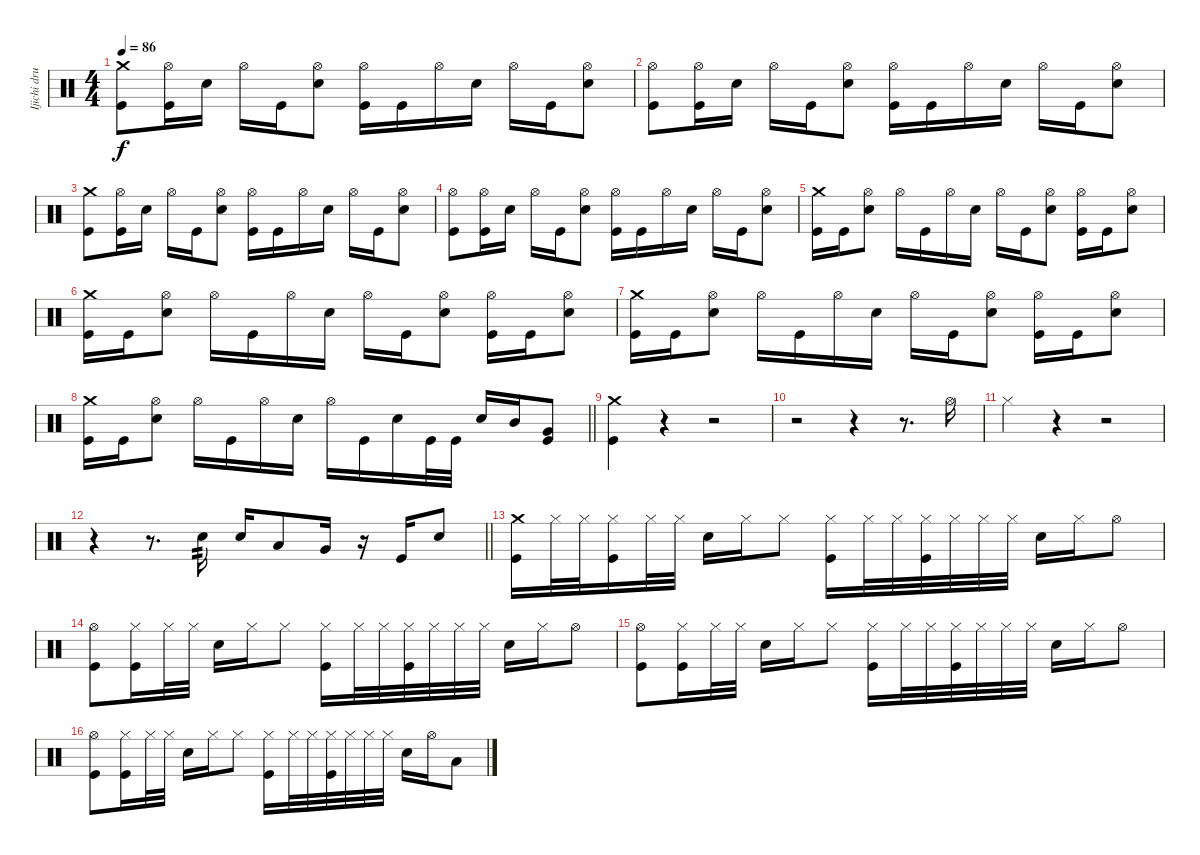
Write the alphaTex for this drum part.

\track ("Ijichi drums" "Ijichi dru") {instrument percussion}
\staff {score}
\articulation defaults
\ts (4 4)
\tempo 86
\clef neutral
\ks c
("Crash medium (hit)" "Kick (hit)").8{dy f} ("Hi-Hat (open)" "Kick (hit)").16 "Electric Snare (hit)".16 "Hi-Hat (open)".16 "Kick (hit)".16 ("Hi-Hat (open)" "Electric Snare (hit)").8 ("Hi-Hat (open)" "Kick (hit)").16 "Kick (hit)".16 "Hi-Hat (open)".16 "Electric Snare (hit)".16 "Hi-Hat (open)".16 "Kick (hit)".16 ("Hi-Hat (open)" "Electric Snare (hit)").8 |
("Hi-Hat (open)" "Kick (hit)").8 ("Hi-Hat (open)" "Kick (hit)").16 "Electric Snare (hit)".16 "Hi-Hat (open)".16 "Kick (hit)".16 ("Hi-Hat (open)" "Electric Snare (hit)").8 ("Hi-Hat (open)" "Kick (hit)").16 "Kick (hit)".16 "Hi-Hat (open)".16 "Electric Snare (hit)".16 "Hi-Hat (open)".16 "Kick (hit)".16 ("Hi-Hat (open)" "Electric Snare (hit)").8 |
("Crash medium (hit)" "Kick (hit)").8 ("Hi-Hat (open)" "Kick (hit)").16 "Electric Snare (hit)".16 "Hi-Hat (open)".16 "Kick (hit)".16 ("Hi-Hat (open)" "Electric Snare (hit)").8 ("Hi-Hat (open)" "Kick (hit)").16 "Kick (hit)".16 "Hi-Hat (open)".16 "Electric Snare (hit)".16 "Hi-Hat (open)".16 "Kick (hit)".16 ("Hi-Hat (open)" "Electric Snare (hit)").8 |
("Hi-Hat (open)" "Kick (hit)").8 ("Hi-Hat (open)" "Kick (hit)").16 "Electric Snare (hit)".16 "Hi-Hat (open)".16 "Kick (hit)".16 ("Hi-Hat (open)" "Electric Snare (hit)").8 ("Hi-Hat (open)" "Kick (hit)").16 "Kick (hit)".16 "Hi-Hat (open)".16 "Electric Snare (hit)".16 "Hi-Hat (open)".16 "Kick (hit)".16 ("Hi-Hat (open)" "Electric Snare (hit)").8 |
("Crash medium (hit)" "Kick (hit)").16 "Kick (hit)".16 ("Hi-Hat (open)" "Electric Snare (hit)").8 "Hi-Hat (open)".16 "Kick (hit)".16 "Hi-Hat (open)".16 "Electric Snare (hit)".16 "Hi-Hat (open)".16 "Kick (hit)".16 ("Hi-Hat (open)" "Electric Snare (hit)").8 ("Hi-Hat (open)" "Kick (hit)").16 "Kick (hit)".16 ("Hi-Hat (open)" "Electric Snare (hit)").8 |
("Crash medium (hit)" "Kick (hit)").16 "Kick (hit)".16 ("Hi-Hat (open)" "Electric Snare (hit)").8 "Hi-Hat (open)".16 "Kick (hit)".16 "Hi-Hat (open)".16 "Electric Snare (hit)".16 "Hi-Hat (open)".16 "Kick (hit)".16 ("Hi-Hat (open)" "Electric Snare (hit)").8 ("Hi-Hat (open)" "Kick (hit)").16 "Kick (hit)".16 ("Hi-Hat (open)" "Electric Snare (hit)").8 |
("Crash medium (hit)" "Kick (hit)").16 "Kick (hit)".16 ("Hi-Hat (open)" "Electric Snare (hit)").8 "Hi-Hat (open)".16 "Kick (hit)".16 "Hi-Hat (open)".16 "Electric Snare (hit)".16 "Hi-Hat (open)".16 "Kick (hit)".16 ("Hi-Hat (open)" "Electric Snare (hit)").8 ("Hi-Hat (open)" "Kick (hit)").16 "Kick (hit)".16 ("Hi-Hat (open)" "Electric Snare (hit)").8 |
\barLineRight lightlight
("Crash medium (hit)" "Kick (hit)").16 "Kick (hit)".16 ("Hi-Hat (open)" "Electric Snare (hit)").8 "Hi-Hat (open)".16 "Kick (hit)".16 "Hi-Hat (open)".16 "Electric Snare (hit)".16 "Hi-Hat (open)".16 "Kick (hit)".16 "Electric Snare (hit)".16 "Kick (hit)".32 "Kick (hit)".32 "Electric Snare (hit)".16 "Mid Tom (hit)".16 ("Very Low Tom (hit)" "Kick (hit)").8 |
("Crash medium (hit)" "Kick (hit)").4 r.4 r.2 |
r.2 r.4 r.8{d} "Hi-Hat (open)".16 |
"Hi-Hat (closed)".4 r.4 r.2 |
\barLineRight lightlight
r.4 r.8{d} "Electric Snare (hit)".16{tp 2} "Electric Snare (hit)".16 "Low Tom (hit)".8 "Very Low Tom (hit)".16 r.16 "Kick (hit)".16 "Electric Snare (hit)".8 |
("Crash medium (hit)" "Kick (hit)").16 "Hi-Hat (closed)".32 "Hi-Hat (closed)".32 ("Hi-Hat (closed)" "Kick (hit)").16 "Hi-Hat (closed)".32 "Hi-Hat (closed)".32 "Electric Snare (hit)".16 "Hi-Hat (closed)".16 "Hi-Hat (closed)".8 ("Hi-Hat (closed)" "Kick (hit)").16 "Hi-Hat (closed)".32 "Hi-Hat (closed)".32 ("Hi-Hat (closed)" "Kick (hit)").32 "Hi-Hat (closed)".32 "Hi-Hat (closed)".32 "Hi-Hat (closed)".32 "Electric Snare (hit)".16 "Hi-Hat (closed)".16 "Hi-Hat (open)".8 |
("Hi-Hat (open)" "Kick (hit)").8 ("Hi-Hat (closed)" "Kick (hit)").16 "Hi-Hat (closed)".32 "Hi-Hat (closed)".32 "Electric Snare (hit)".16 "Hi-Hat (closed)".16 "Hi-Hat (closed)".8 ("Hi-Hat (closed)" "Kick (hit)").16 "Hi-Hat (closed)".32 "Hi-Hat (closed)".32 ("Hi-Hat (closed)" "Kick (hit)").32 "Hi-Hat (closed)".32 "Hi-Hat (closed)".32 "Hi-Hat (closed)".32 "Electric Snare (hit)".16 "Hi-Hat (closed)".16 "Hi-Hat (open)".8 |
("Hi-Hat (open)" "Kick (hit)").8 ("Hi-Hat (closed)" "Kick (hit)").16 "Hi-Hat (closed)".32 "Hi-Hat (closed)".32 "Electric Snare (hit)".16 "Hi-Hat (closed)".16 "Hi-Hat (closed)".8 ("Hi-Hat (closed)" "Kick (hit)").16 "Hi-Hat (closed)".32 "Hi-Hat (closed)".32 ("Hi-Hat (closed)" "Kick (hit)").32 "Hi-Hat (closed)".32 "Hi-Hat (closed)".32 "Hi-Hat (closed)".32 "Electric Snare (hit)".16 "Hi-Hat (closed)".16 "Hi-Hat (open)".8 |
("Hi-Hat (open)" "Kick (hit)").8 ("Hi-Hat (closed)" "Kick (hit)").16 "Hi-Hat (closed)".32 "Hi-Hat (closed)".32 "Electric Snare (hit)".16 "Hi-Hat (closed)".16 "Hi-Hat (closed)".8 ("Hi-Hat (closed)" "Kick (hit)").16 "Hi-Hat (closed)".32 "Hi-Hat (closed)".32 ("Hi-Hat (closed)" "Kick (hit)").32 "Hi-Hat (closed)".32 "Hi-Hat (closed)".32 "Hi-Hat (closed)".32 "Electric Snare (hit)".16 "Hi-Hat (open)".16 "Low Tom (hit)".8
